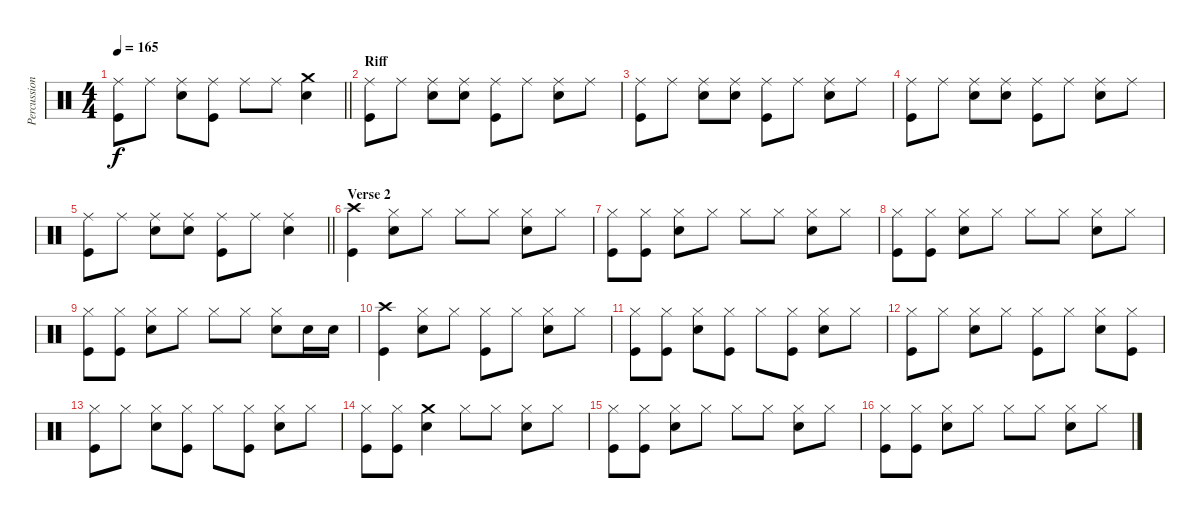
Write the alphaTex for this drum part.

\track ("Percussion" "Percussion") {instrument percussion}
\staff {score}
\articulation defaults
\ts (4 4)
\tempo 165
\clef neutral
\barLineRight lightlight
\ks c
("Kick (hit)" "Ride (middle)").8{dy f} "Ride (middle)".8 ("Ride (middle)" "Snare (hit) 2").8 ("Kick (hit)" "Ride (middle)").8 "Ride (middle)".8 "Ride (middle)".8 ("Crash medium (hit)" "Snare (hit) 2").4 |
\section ("" "Riff")
("Kick (hit)" "Ride (middle)").8 "Ride (middle)".8 ("Ride (middle)" "Snare (hit) 2").8 ("Ride (middle)" "Snare (hit) 2").8 ("Kick (hit)" "Ride (middle)").8 "Ride (middle)".8 ("Ride (middle)" "Snare (hit) 2").8 "Ride (middle)".8 |
("Kick (hit)" "Ride (middle)").8 "Ride (middle)".8 ("Ride (middle)" "Snare (hit) 2").8 ("Ride (middle)" "Snare (hit) 2").8 ("Kick (hit)" "Ride (middle)").8 "Ride (middle)".8 ("Ride (middle)" "Snare (hit) 2").8 "Ride (middle)".8 |
("Kick (hit)" "Ride (middle)").8 "Ride (middle)".8 ("Ride (middle)" "Snare (hit) 2").8 ("Ride (middle)" "Snare (hit) 2").8 ("Kick (hit)" "Ride (middle)").8 "Ride (middle)".8 ("Ride (middle)" "Snare (hit) 2").8 "Ride (middle)".8 |
\barLineRight lightlight
("Kick (hit)" "Ride (middle)").8 "Ride (middle)".8 ("Ride (middle)" "Snare (hit) 2").8 ("Ride (middle)" "Snare (hit) 2").8 ("Kick (hit)" "Ride (middle)").8 "Ride (middle)".8 ("Ride (middle)" "Snare (hit) 2").4 |
\section ("" "Verse 2")
("Kick (hit)" "Crash high (hit)").4 ("Hi-Hat (closed)" "Snare (hit) 2").8 "Hi-Hat (closed)".8 "Hi-Hat (closed)".8 "Hi-Hat (closed)".8 ("Hi-Hat (closed)" "Snare (hit) 2").8 "Hi-Hat (closed)".8 |
("Kick (hit)" "Hi-Hat (closed)").8 ("Kick (hit)" "Hi-Hat (closed)").8 ("Hi-Hat (closed)" "Snare (hit) 2").8 "Hi-Hat (closed)".8 "Hi-Hat (closed)".8 "Hi-Hat (closed)".8 ("Hi-Hat (closed)" "Snare (hit) 2").8 "Hi-Hat (closed)".8 |
("Kick (hit)" "Hi-Hat (closed)").8 ("Kick (hit)" "Hi-Hat (closed)").8 ("Hi-Hat (closed)" "Snare (hit) 2").8 "Hi-Hat (closed)".8 "Hi-Hat (closed)".8 "Hi-Hat (closed)".8 ("Hi-Hat (closed)" "Snare (hit) 2").8 "Hi-Hat (closed)".8 |
("Kick (hit)" "Hi-Hat (closed)").8 ("Kick (hit)" "Hi-Hat (closed)").8 ("Hi-Hat (closed)" "Snare (hit) 2").8 "Hi-Hat (closed)".8 "Hi-Hat (closed)".8 "Hi-Hat (closed)".8 ("Hi-Hat (closed)" "Snare (hit) 2").8 "Snare (hit) 2".16 "Snare (hit) 2".16 |
("Kick (hit)" "Crash high (hit)").4 ("Hi-Hat (closed)" "Snare (hit) 2").8 "Hi-Hat (closed)".8 ("Kick (hit)" "Hi-Hat (closed)").8 "Hi-Hat (closed)".8 ("Hi-Hat (closed)" "Snare (hit) 2").8 "Hi-Hat (closed)".8 |
("Kick (hit)" "Hi-Hat (closed)").8 ("Kick (hit)" "Hi-Hat (closed)").8 ("Hi-Hat (closed)" "Snare (hit) 2").8 ("Kick (hit)" "Hi-Hat (closed)").8 "Hi-Hat (closed)".8 ("Kick (hit)" "Hi-Hat (closed)").8 ("Hi-Hat (closed)" "Snare (hit) 2").8 "Hi-Hat (closed)".8 |
("Kick (hit)" "Hi-Hat (closed)").8 "Hi-Hat (closed)".8 ("Hi-Hat (closed)" "Snare (hit) 2").8 "Hi-Hat (closed)".8 ("Kick (hit)" "Hi-Hat (closed)").8 "Hi-Hat (closed)".8 ("Hi-Hat (closed)" "Snare (hit) 2").8 ("Kick (hit)" "Hi-Hat (closed)").8 |
("Kick (hit)" "Hi-Hat (closed)").8 "Hi-Hat (closed)".8 ("Hi-Hat (closed)" "Snare (hit) 2").8 ("Kick (hit)" "Hi-Hat (closed)").8 "Hi-Hat (closed)".8 ("Kick (hit)" "Hi-Hat (closed)").8 ("Hi-Hat (closed)" "Snare (hit) 2").8 "Hi-Hat (closed)".8 |
("Kick (hit)" "Hi-Hat (closed)").8 ("Kick (hit)" "Hi-Hat (closed)").8 ("Crash medium (hit)" "Snare (hit) 2").4 "Hi-Hat (closed)".8 "Hi-Hat (closed)".8 ("Hi-Hat (closed)" "Snare (hit) 2").8 "Hi-Hat (closed)".8 |
("Kick (hit)" "Hi-Hat (closed)").8 ("Kick (hit)" "Hi-Hat (closed)").8 ("Hi-Hat (closed)" "Snare (hit) 2").8 "Hi-Hat (closed)".8 "Hi-Hat (closed)".8 "Hi-Hat (closed)".8 ("Hi-Hat (closed)" "Snare (hit) 2").8 "Hi-Hat (closed)".8 |
("Kick (hit)" "Hi-Hat (closed)").8 ("Kick (hit)" "Hi-Hat (closed)").8 ("Hi-Hat (closed)" "Snare (hit) 2").8 "Hi-Hat (closed)".8 "Hi-Hat (closed)".8 "Hi-Hat (closed)".8 ("Hi-Hat (closed)" "Snare (hit) 2").8 "Hi-Hat (closed)".8
